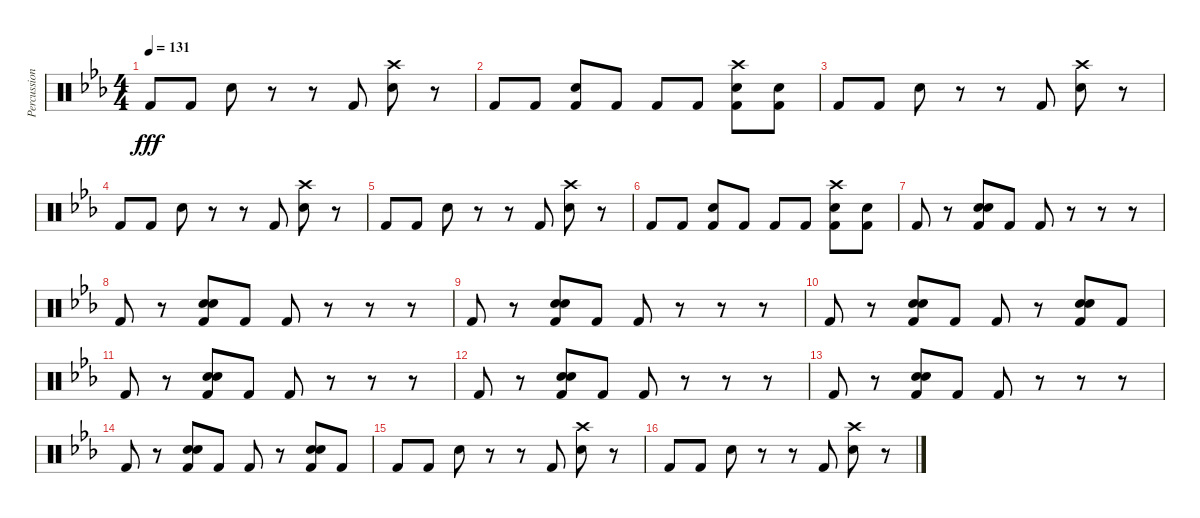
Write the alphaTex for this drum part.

\track ("Percussion" "Percussion") {instrument percussion}
\staff {score}
\articulation defaults
\ts (4 4)
\tempo 131
\clef neutral
\ks cminor "Kick (hit) 2".8{dy fff} "Kick (hit) 2".8 "Electric Snare (hit)".8
r.8 r.8 "Kick (hit) 2".8 ("Electric Snare (hit)" "Crash high (hit)").8 r.8 |
"Kick (hit) 2".8 "Kick (hit) 2".8 ("Electric Snare (hit)" "Kick (hit) 2").8 "Kick (hit) 2".8 "Kick (hit) 2".8 "Kick (hit) 2".8 ("Electric Snare (hit)" "Crash high (hit)" "Kick (hit) 2").8 ("Kick (hit) 2" "Electric Snare (hit)").8 |
"Kick (hit) 2".8 "Kick (hit) 2".8 "Electric Snare (hit)".8 r.8 r.8 "Kick (hit) 2".8 ("Electric Snare (hit)" "Crash high (hit)").8 r.8 |
"Kick (hit) 2".8 "Kick (hit) 2".8 "Electric Snare (hit)".8 r.8 r.8 "Kick (hit) 2".8 ("Electric Snare (hit)" "Crash high (hit)").8 r.8 |
"Kick (hit) 2".8 "Kick (hit) 2".8 "Electric Snare (hit)".8 r.8 r.8 "Kick (hit) 2".8 ("Electric Snare (hit)" "Crash high (hit)").8 r.8 |
"Kick (hit) 2".8 "Kick (hit) 2".8 ("Electric Snare (hit)" "Kick (hit) 2").8 "Kick (hit) 2".8 "Kick (hit) 2".8 "Kick (hit) 2".8 ("Electric Snare (hit)" "Crash high (hit)" "Kick (hit) 2").8 ("Kick (hit) 2" "Electric Snare (hit)").8 |
"Kick (hit) 2".8 r.8 ("Electric Snare (hit)" "Kick (hit) 2" "Snare (hit) 2").8 "Kick (hit) 2".8 "Kick (hit) 2".8 r.8 r.8 r.8 |
"Kick (hit) 2".8 r.8 ("Electric Snare (hit)" "Kick (hit) 2" "Snare (hit) 2").8 "Kick (hit) 2".8 "Kick (hit) 2".8 r.8 r.8 r.8 |
"Kick (hit) 2".8 r.8 ("Electric Snare (hit)" "Kick (hit) 2" "Snare (hit) 2").8 "Kick (hit) 2".8 "Kick (hit) 2".8 r.8 r.8 r.8 |
"Kick (hit) 2".8 r.8 ("Electric Snare (hit)" "Kick (hit) 2" "Snare (hit) 2").8 "Kick (hit) 2".8 "Kick (hit) 2".8 r.8 ("Electric Snare (hit)" "Kick (hit) 2" "Snare (hit) 2").8 "Kick (hit) 2".8 |
"Kick (hit) 2".8 r.8 ("Electric Snare (hit)" "Kick (hit) 2" "Snare (hit) 2").8 "Kick (hit) 2".8 "Kick (hit) 2".8 r.8 r.8 r.8 |
"Kick (hit) 2".8 r.8 ("Electric Snare (hit)" "Kick (hit) 2" "Snare (hit) 2").8 "Kick (hit) 2".8 "Kick (hit) 2".8 r.8 r.8 r.8 |
"Kick (hit) 2".8 r.8 ("Electric Snare (hit)" "Kick (hit) 2" "Snare (hit) 2").8 "Kick (hit) 2".8 "Kick (hit) 2".8 r.8 r.8 r.8 |
"Kick (hit) 2".8 r.8 ("Electric Snare (hit)" "Kick (hit) 2" "Snare (hit) 2").8 "Kick (hit) 2".8 "Kick (hit) 2".8 r.8 ("Electric Snare (hit)" "Kick (hit) 2" "Snare (hit) 2").8 "Kick (hit) 2".8 |
"Kick (hit) 2".8 "Kick (hit) 2".8 "Electric Snare (hit)".8 r.8 r.8 "Kick (hit) 2".8 ("Electric Snare (hit)" "Crash high (hit)").8 r.8 |
"Kick (hit) 2".8 "Kick (hit) 2".8 "Electric Snare (hit)".8 r.8 r.8 "Kick (hit) 2".8 ("Electric Snare (hit)" "Crash high (hit)").8 r.8
